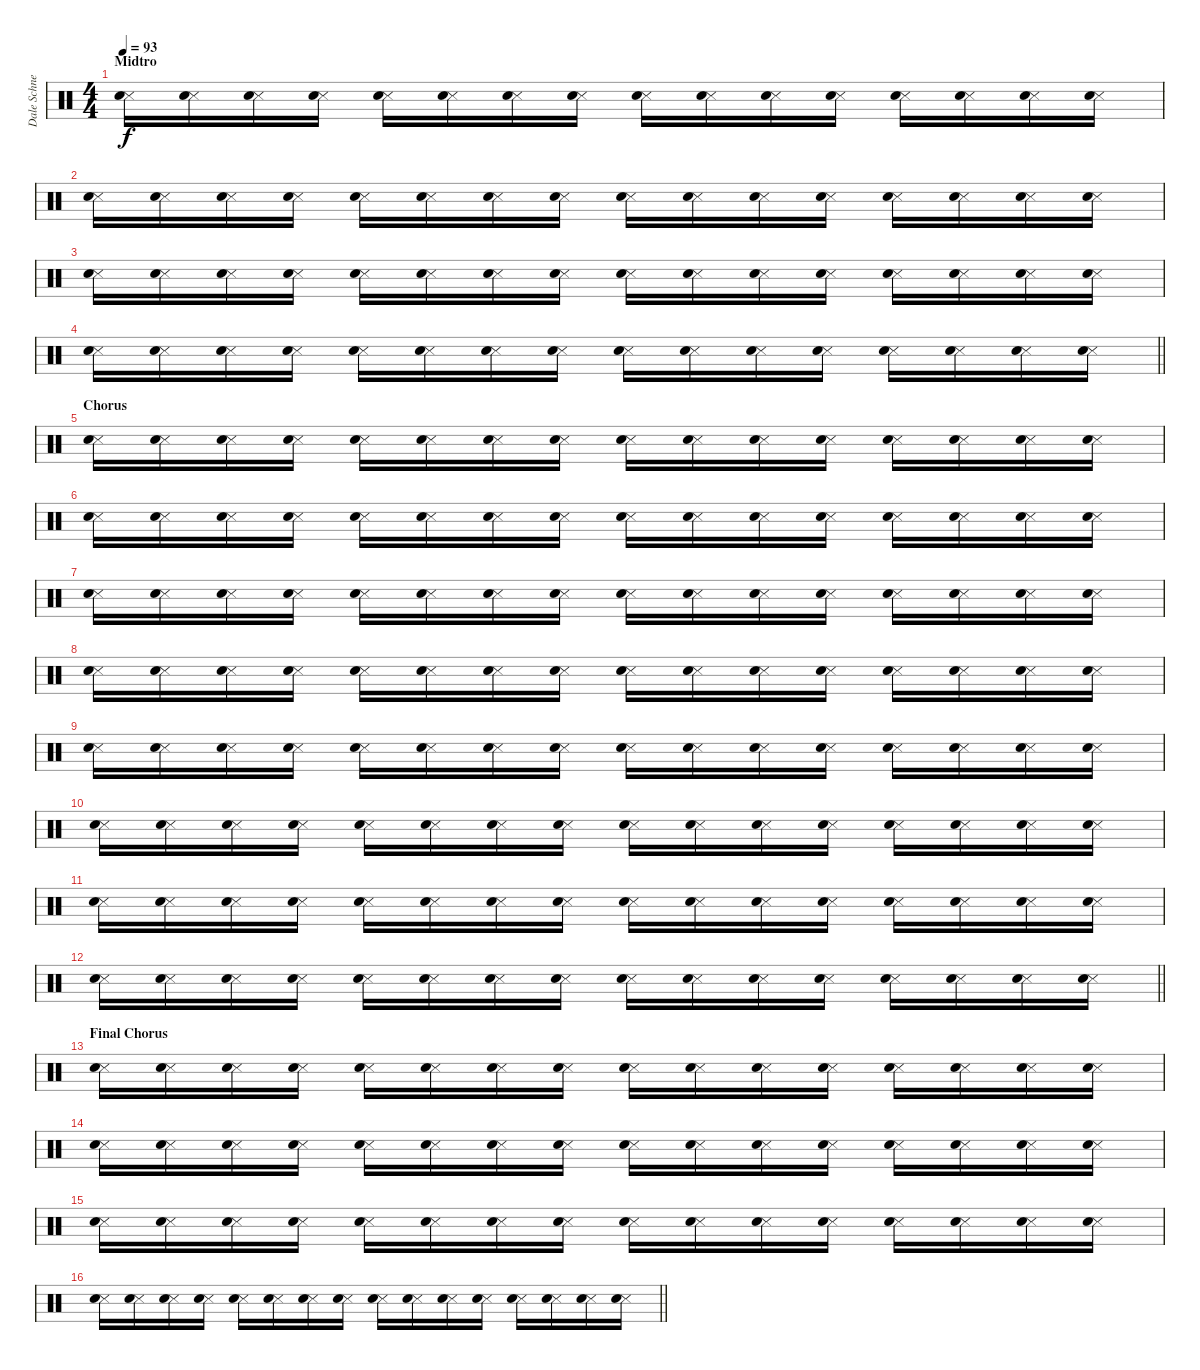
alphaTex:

\track ("Dale Schnettler (Drums)" "Dale Schne") {instrument percussion}
\staff {score}
\articulation defaults
\ts (4 4)
\section ("" "Midtro")
\tempo 93
\clef neutral
\ks c
("Metronome (hit)" "Hand Clap (hit)").16{dy f} ("Metronome (hit)" "Hand Clap (hit)").16 ("Metronome (hit)" "Hand Clap (hit)").16 ("Metronome (hit)" "Hand Clap (hit)").16 ("Metronome (hit)" "Hand Clap (hit)").16 ("Metronome (hit)" "Hand Clap (hit)").16 ("Metronome (hit)" "Hand Clap (hit)").16 ("Metronome (hit)" "Hand Clap (hit)").16 ("Metronome (hit)" "Hand Clap (hit)").16 ("Metronome (hit)" "Hand Clap (hit)").16 ("Metronome (hit)" "Hand Clap (hit)").16 ("Metronome (hit)" "Hand Clap (hit)").16 ("Metronome (hit)" "Hand Clap (hit)").16 ("Metronome (hit)" "Hand Clap (hit)").16 ("Metronome (hit)" "Hand Clap (hit)").16 ("Metronome (hit)" "Hand Clap (hit)").16 |
("Metronome (hit)" "Hand Clap (hit)").16 ("Metronome (hit)" "Hand Clap (hit)").16 ("Metronome (hit)" "Hand Clap (hit)").16 ("Metronome (hit)" "Hand Clap (hit)").16 ("Metronome (hit)" "Hand Clap (hit)").16 ("Metronome (hit)" "Hand Clap (hit)").16 ("Metronome (hit)" "Hand Clap (hit)").16 ("Metronome (hit)" "Hand Clap (hit)").16 ("Metronome (hit)" "Hand Clap (hit)").16 ("Metronome (hit)" "Hand Clap (hit)").16 ("Metronome (hit)" "Hand Clap (hit)").16 ("Metronome (hit)" "Hand Clap (hit)").16 ("Metronome (hit)" "Hand Clap (hit)").16 ("Metronome (hit)" "Hand Clap (hit)").16 ("Metronome (hit)" "Hand Clap (hit)").16 ("Metronome (hit)" "Hand Clap (hit)").16 |
("Metronome (hit)" "Hand Clap (hit)").16 ("Metronome (hit)" "Hand Clap (hit)").16 ("Metronome (hit)" "Hand Clap (hit)").16 ("Metronome (hit)" "Hand Clap (hit)").16 ("Metronome (hit)" "Hand Clap (hit)").16 ("Metronome (hit)" "Hand Clap (hit)").16 ("Metronome (hit)" "Hand Clap (hit)").16 ("Metronome (hit)" "Hand Clap (hit)").16 ("Metronome (hit)" "Hand Clap (hit)").16 ("Metronome (hit)" "Hand Clap (hit)").16 ("Metronome (hit)" "Hand Clap (hit)").16 ("Metronome (hit)" "Hand Clap (hit)").16 ("Metronome (hit)" "Hand Clap (hit)").16 ("Metronome (hit)" "Hand Clap (hit)").16 ("Metronome (hit)" "Hand Clap (hit)").16 ("Metronome (hit)" "Hand Clap (hit)").16 |
\barLineRight lightlight
("Metronome (hit)" "Hand Clap (hit)").16 ("Metronome (hit)" "Hand Clap (hit)").16 ("Metronome (hit)" "Hand Clap (hit)").16 ("Metronome (hit)" "Hand Clap (hit)").16 ("Metronome (hit)" "Hand Clap (hit)").16 ("Metronome (hit)" "Hand Clap (hit)").16 ("Metronome (hit)" "Hand Clap (hit)").16 ("Metronome (hit)" "Hand Clap (hit)").16 ("Metronome (hit)" "Hand Clap (hit)").16 ("Metronome (hit)" "Hand Clap (hit)").16 ("Metronome (hit)" "Hand Clap (hit)").16 ("Metronome (hit)" "Hand Clap (hit)").16 ("Metronome (hit)" "Hand Clap (hit)").16 ("Metronome (hit)" "Hand Clap (hit)").16 ("Metronome (hit)" "Hand Clap (hit)").16 ("Metronome (hit)" "Hand Clap (hit)").16 |
\section ("" "Chorus")
("Metronome (hit)" "Hand Clap (hit)").16 ("Metronome (hit)" "Hand Clap (hit)").16 ("Metronome (hit)" "Hand Clap (hit)").16 ("Metronome (hit)" "Hand Clap (hit)").16 ("Metronome (hit)" "Hand Clap (hit)").16 ("Metronome (hit)" "Hand Clap (hit)").16 ("Metronome (hit)" "Hand Clap (hit)").16 ("Metronome (hit)" "Hand Clap (hit)").16 ("Metronome (hit)" "Hand Clap (hit)").16 ("Metronome (hit)" "Hand Clap (hit)").16 ("Metronome (hit)" "Hand Clap (hit)").16 ("Metronome (hit)" "Hand Clap (hit)").16 ("Metronome (hit)" "Hand Clap (hit)").16 ("Metronome (hit)" "Hand Clap (hit)").16 ("Metronome (hit)" "Hand Clap (hit)").16 ("Metronome (hit)" "Hand Clap (hit)").16 |
("Metronome (hit)" "Hand Clap (hit)").16 ("Metronome (hit)" "Hand Clap (hit)").16 ("Metronome (hit)" "Hand Clap (hit)").16 ("Metronome (hit)" "Hand Clap (hit)").16 ("Metronome (hit)" "Hand Clap (hit)").16 ("Metronome (hit)" "Hand Clap (hit)").16 ("Metronome (hit)" "Hand Clap (hit)").16 ("Metronome (hit)" "Hand Clap (hit)").16 ("Metronome (hit)" "Hand Clap (hit)").16 ("Metronome (hit)" "Hand Clap (hit)").16 ("Metronome (hit)" "Hand Clap (hit)").16 ("Metronome (hit)" "Hand Clap (hit)").16 ("Metronome (hit)" "Hand Clap (hit)").16 ("Metronome (hit)" "Hand Clap (hit)").16 ("Metronome (hit)" "Hand Clap (hit)").16 ("Metronome (hit)" "Hand Clap (hit)").16 |
("Metronome (hit)" "Hand Clap (hit)").16 ("Metronome (hit)" "Hand Clap (hit)").16 ("Metronome (hit)" "Hand Clap (hit)").16 ("Metronome (hit)" "Hand Clap (hit)").16 ("Metronome (hit)" "Hand Clap (hit)").16 ("Metronome (hit)" "Hand Clap (hit)").16 ("Metronome (hit)" "Hand Clap (hit)").16 ("Metronome (hit)" "Hand Clap (hit)").16 ("Metronome (hit)" "Hand Clap (hit)").16 ("Metronome (hit)" "Hand Clap (hit)").16 ("Metronome (hit)" "Hand Clap (hit)").16 ("Metronome (hit)" "Hand Clap (hit)").16 ("Metronome (hit)" "Hand Clap (hit)").16 ("Metronome (hit)" "Hand Clap (hit)").16 ("Metronome (hit)" "Hand Clap (hit)").16 ("Metronome (hit)" "Hand Clap (hit)").16 |
("Metronome (hit)" "Hand Clap (hit)").16 ("Metronome (hit)" "Hand Clap (hit)").16 ("Metronome (hit)" "Hand Clap (hit)").16 ("Metronome (hit)" "Hand Clap (hit)").16 ("Metronome (hit)" "Hand Clap (hit)").16 ("Metronome (hit)" "Hand Clap (hit)").16 ("Metronome (hit)" "Hand Clap (hit)").16 ("Metronome (hit)" "Hand Clap (hit)").16 ("Metronome (hit)" "Hand Clap (hit)").16 ("Metronome (hit)" "Hand Clap (hit)").16 ("Metronome (hit)" "Hand Clap (hit)").16 ("Metronome (hit)" "Hand Clap (hit)").16 ("Metronome (hit)" "Hand Clap (hit)").16 ("Metronome (hit)" "Hand Clap (hit)").16 ("Metronome (hit)" "Hand Clap (hit)").16 ("Metronome (hit)" "Hand Clap (hit)").16 |
("Metronome (hit)" "Hand Clap (hit)").16 ("Metronome (hit)" "Hand Clap (hit)").16 ("Metronome (hit)" "Hand Clap (hit)").16 ("Metronome (hit)" "Hand Clap (hit)").16 ("Metronome (hit)" "Hand Clap (hit)").16 ("Metronome (hit)" "Hand Clap (hit)").16 ("Metronome (hit)" "Hand Clap (hit)").16 ("Metronome (hit)" "Hand Clap (hit)").16 ("Metronome (hit)" "Hand Clap (hit)").16 ("Metronome (hit)" "Hand Clap (hit)").16 ("Metronome (hit)" "Hand Clap (hit)").16 ("Metronome (hit)" "Hand Clap (hit)").16 ("Metronome (hit)" "Hand Clap (hit)").16 ("Metronome (hit)" "Hand Clap (hit)").16 ("Metronome (hit)" "Hand Clap (hit)").16 ("Metronome (hit)" "Hand Clap (hit)").16 |
("Metronome (hit)" "Hand Clap (hit)").16 ("Metronome (hit)" "Hand Clap (hit)").16 ("Metronome (hit)" "Hand Clap (hit)").16 ("Metronome (hit)" "Hand Clap (hit)").16 ("Metronome (hit)" "Hand Clap (hit)").16 ("Metronome (hit)" "Hand Clap (hit)").16 ("Metronome (hit)" "Hand Clap (hit)").16 ("Metronome (hit)" "Hand Clap (hit)").16 ("Metronome (hit)" "Hand Clap (hit)").16 ("Metronome (hit)" "Hand Clap (hit)").16 ("Metronome (hit)" "Hand Clap (hit)").16 ("Metronome (hit)" "Hand Clap (hit)").16 ("Metronome (hit)" "Hand Clap (hit)").16 ("Metronome (hit)" "Hand Clap (hit)").16 ("Metronome (hit)" "Hand Clap (hit)").16 ("Metronome (hit)" "Hand Clap (hit)").16 |
("Metronome (hit)" "Hand Clap (hit)").16 ("Metronome (hit)" "Hand Clap (hit)").16 ("Metronome (hit)" "Hand Clap (hit)").16 ("Metronome (hit)" "Hand Clap (hit)").16 ("Metronome (hit)" "Hand Clap (hit)").16 ("Metronome (hit)" "Hand Clap (hit)").16 ("Metronome (hit)" "Hand Clap (hit)").16 ("Metronome (hit)" "Hand Clap (hit)").16 ("Metronome (hit)" "Hand Clap (hit)").16 ("Metronome (hit)" "Hand Clap (hit)").16 ("Metronome (hit)" "Hand Clap (hit)").16 ("Metronome (hit)" "Hand Clap (hit)").16 ("Metronome (hit)" "Hand Clap (hit)").16 ("Metronome (hit)" "Hand Clap (hit)").16 ("Metronome (hit)" "Hand Clap (hit)").16 ("Metronome (hit)" "Hand Clap (hit)").16 |
\barLineRight lightlight
("Metronome (hit)" "Hand Clap (hit)").16 ("Metronome (hit)" "Hand Clap (hit)").16 ("Metronome (hit)" "Hand Clap (hit)").16 ("Metronome (hit)" "Hand Clap (hit)").16 ("Metronome (hit)" "Hand Clap (hit)").16 ("Metronome (hit)" "Hand Clap (hit)").16 ("Metronome (hit)" "Hand Clap (hit)").16 ("Metronome (hit)" "Hand Clap (hit)").16 ("Metronome (hit)" "Hand Clap (hit)").16 ("Metronome (hit)" "Hand Clap (hit)").16 ("Metronome (hit)" "Hand Clap (hit)").16 ("Metronome (hit)" "Hand Clap (hit)").16 ("Metronome (hit)" "Hand Clap (hit)").16 ("Metronome (hit)" "Hand Clap (hit)").16 ("Metronome (hit)" "Hand Clap (hit)").16 ("Metronome (hit)" "Hand Clap (hit)").16 |
\section ("" "Final Chorus")
("Metronome (hit)" "Hand Clap (hit)").16 ("Metronome (hit)" "Hand Clap (hit)").16 ("Metronome (hit)" "Hand Clap (hit)").16 ("Metronome (hit)" "Hand Clap (hit)").16 ("Metronome (hit)" "Hand Clap (hit)").16 ("Metronome (hit)" "Hand Clap (hit)").16 ("Metronome (hit)" "Hand Clap (hit)").16 ("Metronome (hit)" "Hand Clap (hit)").16 ("Metronome (hit)" "Hand Clap (hit)").16 ("Metronome (hit)" "Hand Clap (hit)").16 ("Metronome (hit)" "Hand Clap (hit)").16 ("Metronome (hit)" "Hand Clap (hit)").16 ("Metronome (hit)" "Hand Clap (hit)").16 ("Metronome (hit)" "Hand Clap (hit)").16 ("Metronome (hit)" "Hand Clap (hit)").16 ("Metronome (hit)" "Hand Clap (hit)").16 |
("Metronome (hit)" "Hand Clap (hit)").16 ("Metronome (hit)" "Hand Clap (hit)").16 ("Metronome (hit)" "Hand Clap (hit)").16 ("Metronome (hit)" "Hand Clap (hit)").16 ("Metronome (hit)" "Hand Clap (hit)").16 ("Metronome (hit)" "Hand Clap (hit)").16 ("Metronome (hit)" "Hand Clap (hit)").16 ("Metronome (hit)" "Hand Clap (hit)").16 ("Metronome (hit)" "Hand Clap (hit)").16 ("Metronome (hit)" "Hand Clap (hit)").16 ("Metronome (hit)" "Hand Clap (hit)").16 ("Metronome (hit)" "Hand Clap (hit)").16 ("Metronome (hit)" "Hand Clap (hit)").16 ("Metronome (hit)" "Hand Clap (hit)").16 ("Metronome (hit)" "Hand Clap (hit)").16 ("Metronome (hit)" "Hand Clap (hit)").16 |
("Metronome (hit)" "Hand Clap (hit)").16 ("Metronome (hit)" "Hand Clap (hit)").16 ("Metronome (hit)" "Hand Clap (hit)").16 ("Metronome (hit)" "Hand Clap (hit)").16 ("Metronome (hit)" "Hand Clap (hit)").16 ("Metronome (hit)" "Hand Clap (hit)").16 ("Metronome (hit)" "Hand Clap (hit)").16 ("Metronome (hit)" "Hand Clap (hit)").16 ("Metronome (hit)" "Hand Clap (hit)").16 ("Metronome (hit)" "Hand Clap (hit)").16 ("Metronome (hit)" "Hand Clap (hit)").16 ("Metronome (hit)" "Hand Clap (hit)").16 ("Metronome (hit)" "Hand Clap (hit)").16 ("Metronome (hit)" "Hand Clap (hit)").16 ("Metronome (hit)" "Hand Clap (hit)").16 ("Metronome (hit)" "Hand Clap (hit)").16 |
\barLineRight lightlight
("Metronome (hit)" "Hand Clap (hit)").16 ("Metronome (hit)" "Hand Clap (hit)").16 ("Metronome (hit)" "Hand Clap (hit)").16 ("Metronome (hit)" "Hand Clap (hit)").16 ("Metronome (hit)" "Hand Clap (hit)").16 ("Metronome (hit)" "Hand Clap (hit)").16 ("Metronome (hit)" "Hand Clap (hit)").16 ("Metronome (hit)" "Hand Clap (hit)").16 ("Metronome (hit)" "Hand Clap (hit)").16 ("Metronome (hit)" "Hand Clap (hit)").16 ("Metronome (hit)" "Hand Clap (hit)").16 ("Metronome (hit)" "Hand Clap (hit)").16 ("Metronome (hit)" "Hand Clap (hit)").16 ("Metronome (hit)" "Hand Clap (hit)").16 ("Metronome (hit)" "Hand Clap (hit)").16 ("Metronome (hit)" "Hand Clap (hit)").16
